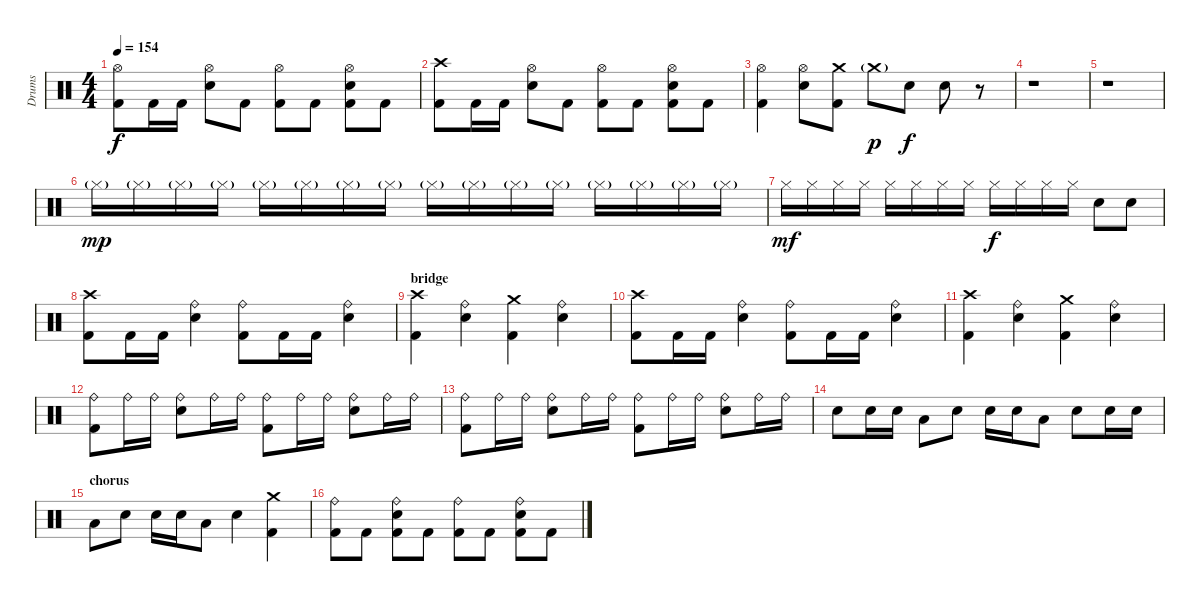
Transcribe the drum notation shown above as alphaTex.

\track ("Drums" "Drums") {instrument percussion}
\staff {score}
\articulation defaults
\ts (4 4)
\tempo 154
\clef neutral
\ks c
("Hi-Hat (open)" "Kick (hit) 2").8{dy f} "Kick (hit) 2".16 "Kick (hit) 2".16 ("Hi-Hat (open)" "Electric Snare (hit)").8 "Kick (hit) 2".8 ("Hi-Hat (open)" "Kick (hit) 2").8 "Kick (hit) 2".8 ("Hi-Hat (open)" "Electric Snare (hit)" "Kick (hit) 2").8 "Kick (hit) 2".8 |
("Crash high (hit)" "Kick (hit) 2").8 "Kick (hit) 2".16 "Kick (hit) 2".16 ("Hi-Hat (open)" "Electric Snare (hit)").8 "Kick (hit) 2".8 ("Hi-Hat (open)" "Kick (hit) 2").8 "Kick (hit) 2".8 ("Hi-Hat (open)" "Electric Snare (hit)" "Kick (hit) 2").8 "Kick (hit) 2".8 |
("Hi-Hat (open)" "Kick (hit) 2").4 ("Hi-Hat (open)" "Electric Snare (hit)").8 ("Crash medium (hit)" "Kick (hit) 2").8 "Crash medium (hit)"{g}.8{dy p} "Electric Snare (hit)".8{dy f} "Electric Snare (hit)".8 r.8 |
r.1 |
r.1 |
"Hi-Hat (closed)"{g}.16{dy mp} "Hi-Hat (closed)"{g}.16 "Hi-Hat (closed)"{g}.16 "Hi-Hat (closed)"{g}.16 "Hi-Hat (closed)"{g}.16 "Hi-Hat (closed)"{g}.16 "Hi-Hat (closed)"{g}.16 "Hi-Hat (closed)"{g}.16 "Hi-Hat (closed)"{g}.16 "Hi-Hat (closed)"{g}.16 "Hi-Hat (closed)"{g}.16 "Hi-Hat (closed)"{g}.16 "Hi-Hat (closed)"{g}.16 "Hi-Hat (closed)"{g}.16 "Hi-Hat (closed)"{g}.16 "Hi-Hat (closed)"{g}.16 |
"Hi-Hat (closed)".16{dy mf} "Hi-Hat (closed)".16 "Hi-Hat (closed)".16 "Hi-Hat (closed)".16 "Hi-Hat (closed)".16 "Hi-Hat (closed)".16 "Hi-Hat (closed)".16 "Hi-Hat (closed)".16 "Hi-Hat (closed)".16{dy f} "Hi-Hat (closed)".16 "Hi-Hat (closed)".16 "Hi-Hat (closed)".16 "Electric Snare (hit)".8 "Electric Snare (hit)".8 |
("Crash high (hit)" "Kick (hit) 2").8 "Kick (hit) 2".16 "Kick (hit) 2".16 ("Ride (bell)" "Electric Snare (hit)").4 ("Ride (bell)" "Kick (hit) 2").8 "Kick (hit) 2".16 "Kick (hit) 2".16 ("Ride (bell)" "Electric Snare (hit)").4 |
\section ("" "bridge")
("Crash high (hit)" "Kick (hit) 2").4 ("Ride (bell)" "Electric Snare (hit)").4 ("Crash medium (hit)" "Kick (hit) 2").4 ("Ride (bell)" "Electric Snare (hit)").4 |
("Crash high (hit)" "Kick (hit) 2").8 "Kick (hit) 2".16 "Kick (hit) 2".16 ("Ride (bell)" "Electric Snare (hit)").4 ("Ride (bell)" "Kick (hit) 2").8 "Kick (hit) 2".16 "Kick (hit) 2".16 ("Ride (bell)" "Electric Snare (hit)").4 |
("Crash high (hit)" "Kick (hit) 2").4 ("Ride (bell)" "Electric Snare (hit)").4 ("Crash medium (hit)" "Kick (hit) 2").4 ("Ride (bell)" "Electric Snare (hit)").4 |
("Ride (bell)" "Kick (hit) 2").8 "Ride (bell)".16 "Ride (bell)".16 ("Ride (bell)" "Electric Snare (hit)").8 "Ride (bell)".16 "Ride (bell)".16 ("Ride (bell)" "Kick (hit) 2").8 "Ride (bell)".16 "Ride (bell)".16 ("Ride (bell)" "Electric Snare (hit)").8 "Ride (bell)".16 "Ride (bell)".16 |
("Ride (bell)" "Kick (hit) 2").8 "Ride (bell)".16 "Ride (bell)".16 ("Ride (bell)" "Electric Snare (hit)").8 "Ride (bell)".16 "Ride (bell)".16 ("Ride (bell)" "Kick (hit) 2").8 "Ride (bell)".16 "Ride (bell)".16 ("Ride (bell)" "Electric Snare (hit)").8 "Ride (bell)".16 "Ride (bell)".16 |
"Electric Snare (hit)".8 "Electric Snare (hit)".16 "Electric Snare (hit)".16 "Low Tom (hit)".8 "Electric Snare (hit)".8 "Electric Snare (hit)".16 "Electric Snare (hit)".16 "Low Tom (hit)".8 "Electric Snare (hit)".8 "Electric Snare (hit)".16 "Electric Snare (hit)".16 |
\section ("" "chorus")
"Low Tom (hit)".8 "Electric Snare (hit)".8 "Electric Snare (hit)".16 "Electric Snare (hit)".16 "Low Tom (hit)".8 "Electric Snare (hit)".4 ("Crash medium (hit)" "Kick (hit) 2").4 |
("Ride (bell)" "Kick (hit) 2").8 "Kick (hit) 2".8 ("Ride (bell)" "Electric Snare (hit)" "Kick (hit) 2").8 "Kick (hit) 2".8 ("Ride (bell)" "Kick (hit) 2").8 "Kick (hit) 2".8 ("Ride (bell)" "Electric Snare (hit)" "Kick (hit) 2").8 "Kick (hit) 2".8
